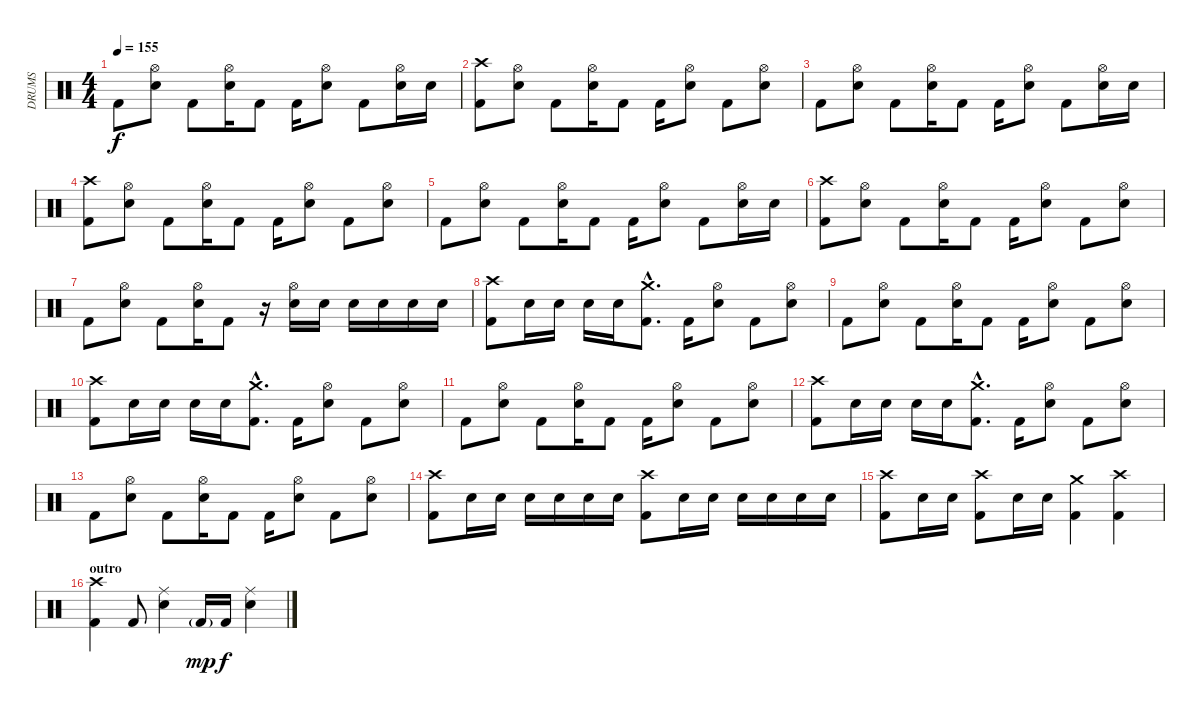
\track ("DRUMS" "DRUMS") {instrument percussion}
\staff {score}
\articulation defaults
\ts (4 4)
\tempo 155
\clef neutral
\ks c "Kick (hit) 2".8{dy f}
("Hi-Hat (open)" "Electric Snare (hit)").8 "Kick (hit) 2".8 ("Hi-Hat (open)" "Electric Snare (hit)").16 "Kick (hit) 2".8 "Kick (hit) 2".16 ("Hi-Hat (open)" "Electric Snare (hit)").8 "Kick (hit) 2".8 ("Hi-Hat (open)" "Electric Snare (hit)").16 "Electric Snare (hit)".16 |
("Crash high (hit)" "Kick (hit) 2").8 ("Hi-Hat (open)" "Electric Snare (hit)").8 "Kick (hit) 2".8 ("Hi-Hat (open)" "Electric Snare (hit)").16 "Kick (hit) 2".8 "Kick (hit) 2".16 ("Hi-Hat (open)" "Electric Snare (hit)").8 "Kick (hit) 2".8 ("Hi-Hat (open)" "Electric Snare (hit)").8 |
"Kick (hit) 2".8 ("Hi-Hat (open)" "Electric Snare (hit)").8 "Kick (hit) 2".8 ("Hi-Hat (open)" "Electric Snare (hit)").16 "Kick (hit) 2".8 "Kick (hit) 2".16 ("Hi-Hat (open)" "Electric Snare (hit)").8 "Kick (hit) 2".8 ("Hi-Hat (open)" "Electric Snare (hit)").16 "Electric Snare (hit)".16 |
("Crash high (hit)" "Kick (hit) 2").8 ("Hi-Hat (open)" "Electric Snare (hit)").8 "Kick (hit) 2".8 ("Hi-Hat (open)" "Electric Snare (hit)").16 "Kick (hit) 2".8 "Kick (hit) 2".16 ("Hi-Hat (open)" "Electric Snare (hit)").8 "Kick (hit) 2".8 ("Hi-Hat (open)" "Electric Snare (hit)").8 |
"Kick (hit) 2".8 ("Hi-Hat (open)" "Electric Snare (hit)").8 "Kick (hit) 2".8 ("Hi-Hat (open)" "Electric Snare (hit)").16 "Kick (hit) 2".8 "Kick (hit) 2".16 ("Hi-Hat (open)" "Electric Snare (hit)").8 "Kick (hit) 2".8 ("Hi-Hat (open)" "Electric Snare (hit)").16 "Electric Snare (hit)".16 |
("Crash high (hit)" "Kick (hit) 2").8 ("Hi-Hat (open)" "Electric Snare (hit)").8 "Kick (hit) 2".8 ("Hi-Hat (open)" "Electric Snare (hit)").16 "Kick (hit) 2".8 "Kick (hit) 2".16 ("Hi-Hat (open)" "Electric Snare (hit)").8 "Kick (hit) 2".8 ("Hi-Hat (open)" "Electric Snare (hit)").8 |
"Kick (hit) 2".8 ("Hi-Hat (open)" "Electric Snare (hit)").8 "Kick (hit) 2".8 ("Hi-Hat (open)" "Electric Snare (hit)").16 "Kick (hit) 2".8 r.16 ("Hi-Hat (open)" "Electric Snare (hit)").16 "Electric Snare (hit)".16 "Electric Snare (hit)".16 "Electric Snare (hit)".16 "Electric Snare (hit)".16 "Electric Snare (hit)".16 |
("Crash high (hit)" "Kick (hit) 2").8 "Electric Snare (hit)".16 "Electric Snare (hit)".16 "Electric Snare (hit)".16 "Electric Snare (hit)".16 ("Crash medium (hit)"{hac} "Kick (hit) 2"{hac}).8{d} "Kick (hit) 2".16 ("Hi-Hat (open)" "Electric Snare (hit)").8 "Kick (hit) 2".8 ("Hi-Hat (open)" "Electric Snare (hit)").8 |
"Kick (hit) 2".8 ("Hi-Hat (open)" "Electric Snare (hit)").8 "Kick (hit) 2".8 ("Hi-Hat (open)" "Electric Snare (hit)").16 "Kick (hit) 2".8 "Kick (hit) 2".16 ("Hi-Hat (open)" "Electric Snare (hit)").8 "Kick (hit) 2".8 ("Hi-Hat (open)" "Electric Snare (hit)").8 |
("Crash high (hit)" "Kick (hit) 2").8 "Electric Snare (hit)".16 "Electric Snare (hit)".16 "Electric Snare (hit)".16 "Electric Snare (hit)".16 ("Crash medium (hit)"{hac} "Kick (hit) 2"{hac}).8{d} "Kick (hit) 2".16 ("Hi-Hat (open)" "Electric Snare (hit)").8 "Kick (hit) 2".8 ("Hi-Hat (open)" "Electric Snare (hit)").8 |
"Kick (hit) 2".8 ("Hi-Hat (open)" "Electric Snare (hit)").8 "Kick (hit) 2".8 ("Hi-Hat (open)" "Electric Snare (hit)").16 "Kick (hit) 2".8 "Kick (hit) 2".16 ("Hi-Hat (open)" "Electric Snare (hit)").8 "Kick (hit) 2".8 ("Hi-Hat (open)" "Electric Snare (hit)").8 |
("Crash high (hit)" "Kick (hit) 2").8 "Electric Snare (hit)".16 "Electric Snare (hit)".16 "Electric Snare (hit)".16 "Electric Snare (hit)".16 ("Crash medium (hit)"{hac} "Kick (hit) 2"{hac}).8{d} "Kick (hit) 2".16 ("Hi-Hat (open)" "Electric Snare (hit)").8 "Kick (hit) 2".8 ("Hi-Hat (open)" "Electric Snare (hit)").8 |
"Kick (hit) 2".8 ("Hi-Hat (open)" "Electric Snare (hit)").8 "Kick (hit) 2".8 ("Hi-Hat (open)" "Electric Snare (hit)").16 "Kick (hit) 2".8 "Kick (hit) 2".16 ("Hi-Hat (open)" "Electric Snare (hit)").8 "Kick (hit) 2".8 ("Hi-Hat (open)" "Electric Snare (hit)").8 |
("Crash high (hit)" "Kick (hit) 2").8 "Electric Snare (hit)".16 "Electric Snare (hit)".16 "Electric Snare (hit)".16 "Electric Snare (hit)".16 "Electric Snare (hit)".16 "Electric Snare (hit)".16 ("Crash high (hit)" "Kick (hit) 2").8 "Electric Snare (hit)".16 "Electric Snare (hit)".16 "Electric Snare (hit)".16 "Electric Snare (hit)".16 "Electric Snare (hit)".16 "Electric Snare (hit)".16 |
("Crash high (hit)" "Kick (hit) 2").8 "Electric Snare (hit)".16 "Electric Snare (hit)".16 ("Crash high (hit)" "Kick (hit) 2").8 "Electric Snare (hit)".16 "Electric Snare (hit)".16 ("Crash medium (hit)" "Kick (hit) 2").4 ("Crash high (hit)" "Kick (hit) 2").4 |
\section ("" "outro")
("Crash high (hit)" "Kick (hit) 2").4 "Kick (hit) 2".8 ("Ride (middle)" "Electric Snare (hit)").4 "Kick (hit) 2"{g}.16{dy mp} "Kick (hit) 2".16{dy f} ("Ride (middle)" "Electric Snare (hit)").4
